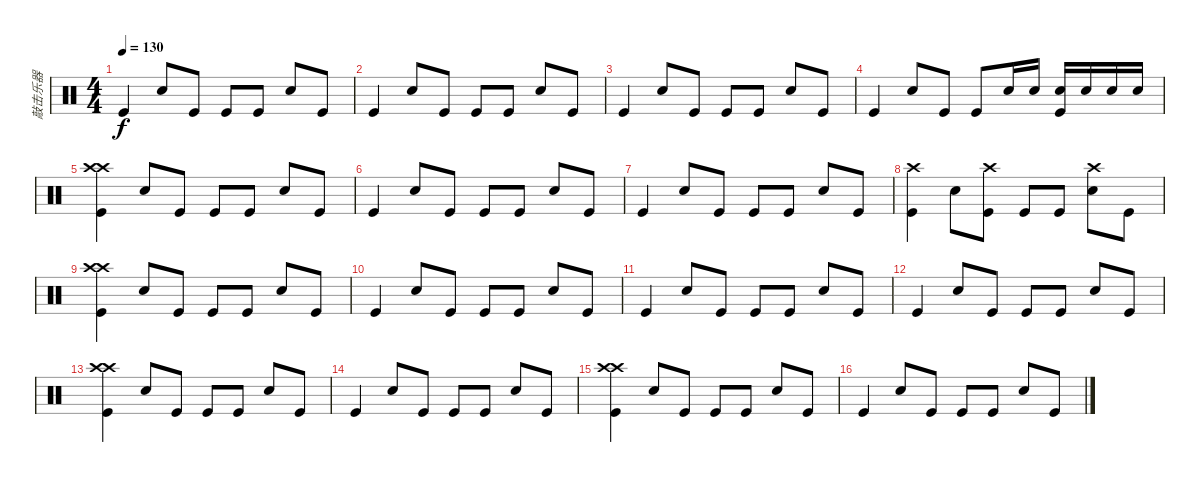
\track ("敲击乐器" "敲击乐器") {instrument percussion}
\staff {score}
\articulation defaults
\ts (4 4)
\tempo 130
\clef neutral
\ks c "Kick (hit)".4{dy f} "Snare (hit) 2".8 "Kick (hit)".8 "Kick (hit)".8 "Kick (hit)".8 "Snare (hit) 2".8 "Kick (hit)".8
|
"Kick (hit)".4 "Snare (hit) 2".8 "Kick (hit)".8 "Kick (hit)".8 "Kick (hit)".8 "Snare (hit) 2".8 "Kick (hit)".8 |
"Kick (hit)".4 "Snare (hit) 2".8 "Kick (hit)".8 "Kick (hit)".8 "Kick (hit)".8 "Snare (hit) 2".8 "Kick (hit)".8 |
"Kick (hit)".4 "Snare (hit) 2".8 "Kick (hit)".8 "Kick (hit)".8 "Snare (hit) 2".16 "Snare (hit) 2".16 ("Snare (hit) 2" "Kick (hit)").16 "Snare (hit) 2".16 "Snare (hit) 2".16 "Snare (hit) 2".16 |
("Crash high (hit)" "Crash high (hit)" "Kick (hit)").4 "Snare (hit) 2".8 "Kick (hit)".8 "Kick (hit)".8 "Kick (hit)".8 "Snare (hit) 2".8 "Kick (hit)".8 |
"Kick (hit)".4 "Snare (hit) 2".8 "Kick (hit)".8 "Kick (hit)".8 "Kick (hit)".8 "Snare (hit) 2".8 "Kick (hit)".8 |
"Kick (hit)".4 "Snare (hit) 2".8 "Kick (hit)".8 "Kick (hit)".8 "Kick (hit)".8 "Snare (hit) 2".8 "Kick (hit)".8 |
("Crash high (hit)" "Kick (hit)").4 "Snare (hit) 2".8 ("Crash high (hit)" "Kick (hit)").8 "Kick (hit)".8 "Kick (hit)".8 ("Crash high (hit)" "Snare (hit) 2").8 "Kick (hit)".8 |
("Crash high (hit)" "Crash high (hit)" "Kick (hit)").4 "Snare (hit) 2".8 "Kick (hit)".8 "Kick (hit)".8 "Kick (hit)".8 "Snare (hit) 2".8 "Kick (hit)".8 |
"Kick (hit)".4 "Snare (hit) 2".8 "Kick (hit)".8 "Kick (hit)".8 "Kick (hit)".8 "Snare (hit) 2".8 "Kick (hit)".8 |
"Kick (hit)".4 "Snare (hit) 2".8 "Kick (hit)".8 "Kick (hit)".8 "Kick (hit)".8 "Snare (hit) 2".8 "Kick (hit)".8 |
"Kick (hit)".4 "Snare (hit) 2".8 "Kick (hit)".8 "Kick (hit)".8 "Kick (hit)".8 "Snare (hit) 2".8 "Kick (hit)".8 |
("Crash high (hit)" "Crash high (hit)" "Kick (hit)").4 "Snare (hit) 2".8 "Kick (hit)".8 "Kick (hit)".8 "Kick (hit)".8 "Snare (hit) 2".8 "Kick (hit)".8 |
"Kick (hit)".4 "Snare (hit) 2".8 "Kick (hit)".8 "Kick (hit)".8 "Kick (hit)".8 "Snare (hit) 2".8 "Kick (hit)".8 |
("Crash high (hit)" "Crash high (hit)" "Kick (hit)").4 "Snare (hit) 2".8 "Kick (hit)".8 "Kick (hit)".8 "Kick (hit)".8 "Snare (hit) 2".8 "Kick (hit)".8 |
"Kick (hit)".4 "Snare (hit) 2".8 "Kick (hit)".8 "Kick (hit)".8 "Kick (hit)".8 "Snare (hit) 2".8 "Kick (hit)".8
